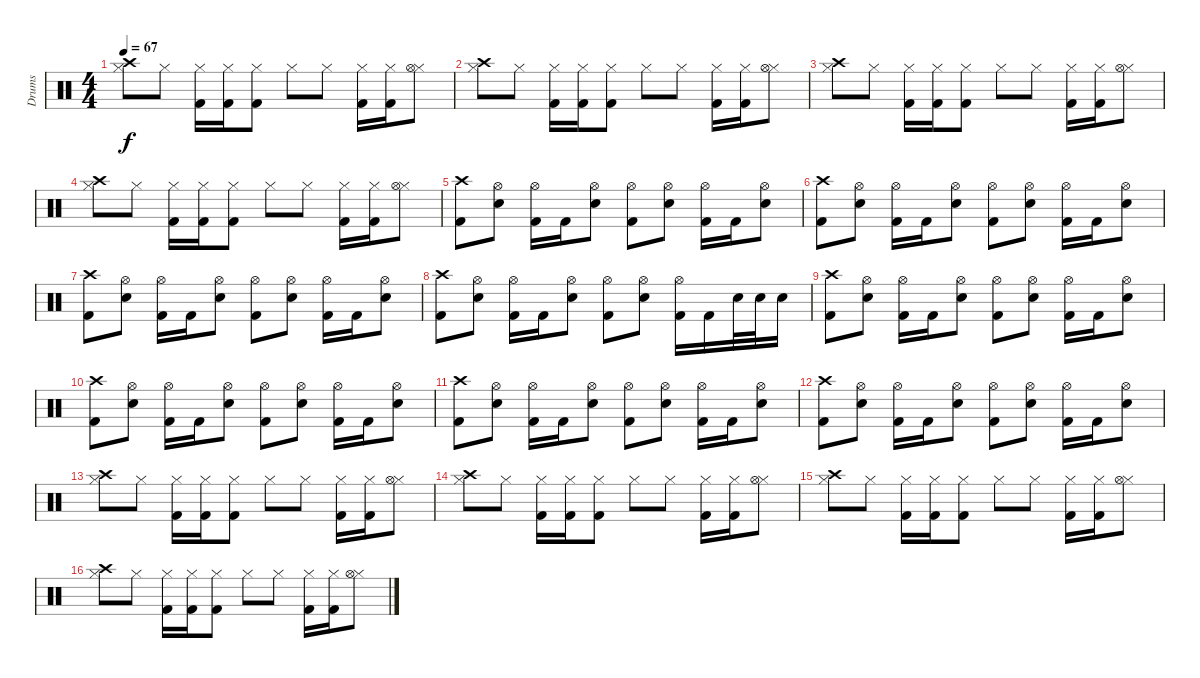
\track ("Drums" "Drums") {instrument percussion}
\staff {score}
\articulation defaults
\ts (4 4)
\tempo 67
\clef neutral
\ks c
("Crash high (hit)" "Hi-Hat (closed)").8{dy f} "Hi-Hat (closed)".8 ("Hi-Hat (closed)" "Kick (hit) 2").16 ("Hi-Hat (closed)" "Kick (hit) 2").16 ("Hi-Hat (closed)" "Kick (hit) 2").8 "Hi-Hat (closed)".8 "Hi-Hat (closed)".8 ("Hi-Hat (closed)" "Kick (hit) 2").16 ("Hi-Hat (closed)" "Kick (hit) 2").16 ("Hi-Hat (closed)" "Hi-Hat (open)").8 |
("Crash high (hit)" "Hi-Hat (closed)").8 "Hi-Hat (closed)".8 ("Hi-Hat (closed)" "Kick (hit) 2").16 ("Hi-Hat (closed)" "Kick (hit) 2").16 ("Hi-Hat (closed)" "Kick (hit) 2").8 "Hi-Hat (closed)".8 "Hi-Hat (closed)".8 ("Hi-Hat (closed)" "Kick (hit) 2").16 ("Hi-Hat (closed)" "Kick (hit) 2").16 ("Hi-Hat (closed)" "Hi-Hat (open)").8 |
("Crash high (hit)" "Hi-Hat (closed)").8 "Hi-Hat (closed)".8 ("Hi-Hat (closed)" "Kick (hit) 2").16 ("Hi-Hat (closed)" "Kick (hit) 2").16 ("Hi-Hat (closed)" "Kick (hit) 2").8 "Hi-Hat (closed)".8 "Hi-Hat (closed)".8 ("Hi-Hat (closed)" "Kick (hit) 2").16 ("Hi-Hat (closed)" "Kick (hit) 2").16 ("Hi-Hat (closed)" "Hi-Hat (open)").8 |
("Crash high (hit)" "Hi-Hat (closed)").8 "Hi-Hat (closed)".8 ("Hi-Hat (closed)" "Kick (hit) 2").16 ("Hi-Hat (closed)" "Kick (hit) 2").16 ("Hi-Hat (closed)" "Kick (hit) 2").8 "Hi-Hat (closed)".8 "Hi-Hat (closed)".8 ("Hi-Hat (closed)" "Kick (hit) 2").16 ("Hi-Hat (closed)" "Kick (hit) 2").16 ("Hi-Hat (closed)" "Hi-Hat (open)").8 |
("Crash high (hit)" "Kick (hit) 2").8 ("Hi-Hat (open)" "Electric Snare (hit)").8 ("Hi-Hat (open)" "Kick (hit) 2").16 "Kick (hit) 2".16 ("Hi-Hat (open)" "Electric Snare (hit)").8 ("Hi-Hat (open)" "Kick (hit) 2").8 ("Hi-Hat (open)" "Electric Snare (hit)").8 ("Hi-Hat (open)" "Kick (hit) 2").16 "Kick (hit) 2".16 ("Hi-Hat (open)" "Electric Snare (hit)").8 |
("Crash high (hit)" "Kick (hit) 2").8 ("Hi-Hat (open)" "Electric Snare (hit)").8 ("Hi-Hat (open)" "Kick (hit) 2").16 "Kick (hit) 2".16 ("Hi-Hat (open)" "Electric Snare (hit)").8 ("Hi-Hat (open)" "Kick (hit) 2").8 ("Hi-Hat (open)" "Electric Snare (hit)").8 ("Hi-Hat (open)" "Kick (hit) 2").16 "Kick (hit) 2".16 ("Hi-Hat (open)" "Electric Snare (hit)").8 |
("Crash high (hit)" "Kick (hit) 2").8 ("Hi-Hat (open)" "Electric Snare (hit)").8 ("Hi-Hat (open)" "Kick (hit) 2").16 "Kick (hit) 2".16 ("Hi-Hat (open)" "Electric Snare (hit)").8 ("Hi-Hat (open)" "Kick (hit) 2").8 ("Hi-Hat (open)" "Electric Snare (hit)").8 ("Hi-Hat (open)" "Kick (hit) 2").16 "Kick (hit) 2".16 ("Hi-Hat (open)" "Electric Snare (hit)").8 |
("Crash high (hit)" "Kick (hit) 2").8 ("Hi-Hat (open)" "Electric Snare (hit)").8 ("Hi-Hat (open)" "Kick (hit) 2").16 "Kick (hit) 2".16 ("Hi-Hat (open)" "Electric Snare (hit)").8 ("Hi-Hat (open)" "Kick (hit) 2").8 ("Hi-Hat (open)" "Electric Snare (hit)").8 ("Hi-Hat (open)" "Kick (hit) 2").16 "Kick (hit) 2".16 "Electric Snare (hit)".32 "Electric Snare (hit)".32 "Electric Snare (hit)".16 |
("Crash high (hit)" "Kick (hit) 2").8 ("Hi-Hat (open)" "Electric Snare (hit)").8 ("Hi-Hat (open)" "Kick (hit) 2").16 "Kick (hit) 2".16 ("Hi-Hat (open)" "Electric Snare (hit)").8 ("Hi-Hat (open)" "Kick (hit) 2").8 ("Hi-Hat (open)" "Electric Snare (hit)").8 ("Hi-Hat (open)" "Kick (hit) 2").16 "Kick (hit) 2".16 ("Hi-Hat (open)" "Electric Snare (hit)").8 |
("Crash high (hit)" "Kick (hit) 2").8 ("Hi-Hat (open)" "Electric Snare (hit)").8 ("Hi-Hat (open)" "Kick (hit) 2").16 "Kick (hit) 2".16 ("Hi-Hat (open)" "Electric Snare (hit)").8 ("Hi-Hat (open)" "Kick (hit) 2").8 ("Hi-Hat (open)" "Electric Snare (hit)").8 ("Hi-Hat (open)" "Kick (hit) 2").16 "Kick (hit) 2".16 ("Hi-Hat (open)" "Electric Snare (hit)").8 |
("Crash high (hit)" "Kick (hit) 2").8 ("Hi-Hat (open)" "Electric Snare (hit)").8 ("Hi-Hat (open)" "Kick (hit) 2").16 "Kick (hit) 2".16 ("Hi-Hat (open)" "Electric Snare (hit)").8 ("Hi-Hat (open)" "Kick (hit) 2").8 ("Hi-Hat (open)" "Electric Snare (hit)").8 ("Hi-Hat (open)" "Kick (hit) 2").16 "Kick (hit) 2".16 ("Hi-Hat (open)" "Electric Snare (hit)").8 |
("Crash high (hit)" "Kick (hit) 2").8 ("Hi-Hat (open)" "Electric Snare (hit)").8 ("Hi-Hat (open)" "Kick (hit) 2").16 "Kick (hit) 2".16 ("Hi-Hat (open)" "Electric Snare (hit)").8 ("Hi-Hat (open)" "Kick (hit) 2").8 ("Hi-Hat (open)" "Electric Snare (hit)").8 ("Hi-Hat (open)" "Kick (hit) 2").16 "Kick (hit) 2".16 ("Hi-Hat (open)" "Electric Snare (hit)").8 |
("Crash high (hit)" "Hi-Hat (closed)").8 "Hi-Hat (closed)".8 ("Hi-Hat (closed)" "Kick (hit) 2").16 ("Hi-Hat (closed)" "Kick (hit) 2").16 ("Hi-Hat (closed)" "Kick (hit) 2").8 "Hi-Hat (closed)".8 "Hi-Hat (closed)".8 ("Hi-Hat (closed)" "Kick (hit) 2").16 ("Hi-Hat (closed)" "Kick (hit) 2").16 ("Hi-Hat (closed)" "Hi-Hat (open)").8 |
("Crash high (hit)" "Hi-Hat (closed)").8 "Hi-Hat (closed)".8 ("Hi-Hat (closed)" "Kick (hit) 2").16 ("Hi-Hat (closed)" "Kick (hit) 2").16 ("Hi-Hat (closed)" "Kick (hit) 2").8 "Hi-Hat (closed)".8 "Hi-Hat (closed)".8 ("Hi-Hat (closed)" "Kick (hit) 2").16 ("Hi-Hat (closed)" "Kick (hit) 2").16 ("Hi-Hat (closed)" "Hi-Hat (open)").8 |
("Crash high (hit)" "Hi-Hat (closed)").8 "Hi-Hat (closed)".8 ("Hi-Hat (closed)" "Kick (hit) 2").16 ("Hi-Hat (closed)" "Kick (hit) 2").16 ("Hi-Hat (closed)" "Kick (hit) 2").8 "Hi-Hat (closed)".8 "Hi-Hat (closed)".8 ("Hi-Hat (closed)" "Kick (hit) 2").16 ("Hi-Hat (closed)" "Kick (hit) 2").16 ("Hi-Hat (closed)" "Hi-Hat (open)").8 |
("Crash high (hit)" "Hi-Hat (closed)").8 "Hi-Hat (closed)".8 ("Hi-Hat (closed)" "Kick (hit) 2").16 ("Hi-Hat (closed)" "Kick (hit) 2").16 ("Hi-Hat (closed)" "Kick (hit) 2").8 "Hi-Hat (closed)".8 "Hi-Hat (closed)".8 ("Hi-Hat (closed)" "Kick (hit) 2").16 ("Hi-Hat (closed)" "Kick (hit) 2").16 ("Hi-Hat (closed)" "Hi-Hat (open)").8
